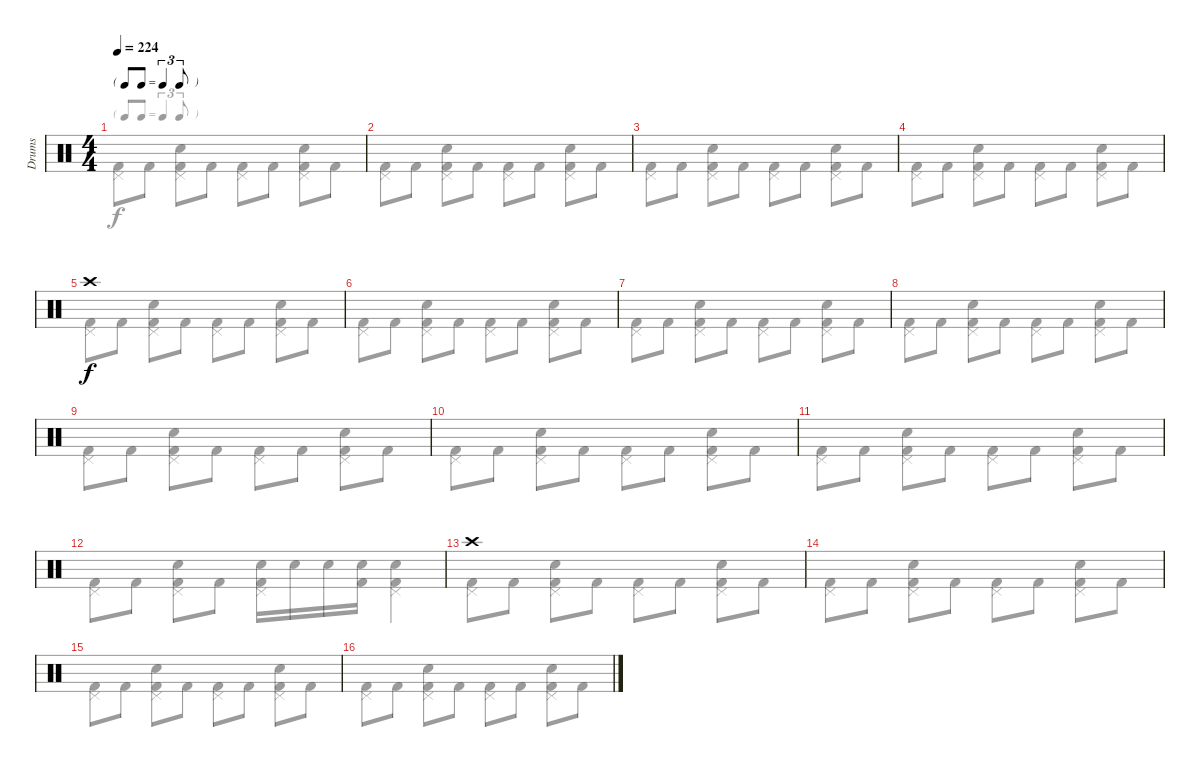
\track ("Drums" "Drums") {instrument percussion}
\staff {score}
\articulation defaults
\voice
\ts (4 4)
\tf triplet8th
\tempo 224
\clef neutral
\ks c
|
|
|
|
"Crash high (hit)".1 |
|
|
|
|
|
|
|
"Crash high (hit)".1 |
|
|
\voice
\clef neutral
\ottava regular
\simile none
\ks c
("Kick (hit) 2" "Pedal Hi-Hat (hit)").8{dy f} "Kick (hit) 2".8 ("Electric Snare (hit)" "Kick (hit) 2" "Pedal Hi-Hat (hit)").8 "Kick (hit) 2".8 ("Kick (hit) 2" "Pedal Hi-Hat (hit)").8 "Kick (hit) 2".8 ("Electric Snare (hit)" "Kick (hit) 2" "Pedal Hi-Hat (hit)").8 "Kick (hit) 2".8 |
("Kick (hit) 2" "Pedal Hi-Hat (hit)").8 "Kick (hit) 2".8 ("Electric Snare (hit)" "Kick (hit) 2" "Pedal Hi-Hat (hit)").8 "Kick (hit) 2".8 ("Kick (hit) 2" "Pedal Hi-Hat (hit)").8 "Kick (hit) 2".8 ("Electric Snare (hit)" "Kick (hit) 2" "Pedal Hi-Hat (hit)").8 "Kick (hit) 2".8 |
("Kick (hit) 2" "Pedal Hi-Hat (hit)").8 "Kick (hit) 2".8 ("Electric Snare (hit)" "Kick (hit) 2" "Pedal Hi-Hat (hit)").8 "Kick (hit) 2".8 ("Kick (hit) 2" "Pedal Hi-Hat (hit)").8 "Kick (hit) 2".8 ("Electric Snare (hit)" "Kick (hit) 2" "Pedal Hi-Hat (hit)").8 "Kick (hit) 2".8 |
("Kick (hit) 2" "Pedal Hi-Hat (hit)").8 "Kick (hit) 2".8 ("Electric Snare (hit)" "Kick (hit) 2" "Pedal Hi-Hat (hit)").8 "Kick (hit) 2".8 ("Kick (hit) 2" "Pedal Hi-Hat (hit)").8 "Kick (hit) 2".8 ("Electric Snare (hit)" "Kick (hit) 2" "Pedal Hi-Hat (hit)").8 "Kick (hit) 2".8 |
("Kick (hit) 2" "Pedal Hi-Hat (hit)").8 "Kick (hit) 2".8 ("Electric Snare (hit)" "Kick (hit) 2" "Pedal Hi-Hat (hit)").8 "Kick (hit) 2".8 ("Kick (hit) 2" "Pedal Hi-Hat (hit)").8 "Kick (hit) 2".8 ("Electric Snare (hit)" "Kick (hit) 2" "Pedal Hi-Hat (hit)").8 "Kick (hit) 2".8 |
("Kick (hit) 2" "Pedal Hi-Hat (hit)").8 "Kick (hit) 2".8 ("Electric Snare (hit)" "Kick (hit) 2" "Pedal Hi-Hat (hit)").8 "Kick (hit) 2".8 ("Kick (hit) 2" "Pedal Hi-Hat (hit)").8 "Kick (hit) 2".8 ("Electric Snare (hit)" "Kick (hit) 2" "Pedal Hi-Hat (hit)").8 "Kick (hit) 2".8 |
("Kick (hit) 2" "Pedal Hi-Hat (hit)").8 "Kick (hit) 2".8 ("Electric Snare (hit)" "Kick (hit) 2" "Pedal Hi-Hat (hit)").8 "Kick (hit) 2".8 ("Kick (hit) 2" "Pedal Hi-Hat (hit)").8 "Kick (hit) 2".8 ("Electric Snare (hit)" "Kick (hit) 2" "Pedal Hi-Hat (hit)").8 "Kick (hit) 2".8 |
("Kick (hit) 2" "Pedal Hi-Hat (hit)").8 "Kick (hit) 2".8 ("Electric Snare (hit)" "Kick (hit) 2" "Pedal Hi-Hat (hit)").8 "Kick (hit) 2".8 ("Kick (hit) 2" "Pedal Hi-Hat (hit)").8 "Kick (hit) 2".8 ("Electric Snare (hit)" "Kick (hit) 2" "Pedal Hi-Hat (hit)").8 "Kick (hit) 2".8 |
("Kick (hit) 2" "Pedal Hi-Hat (hit)").8 "Kick (hit) 2".8 ("Electric Snare (hit)" "Kick (hit) 2" "Pedal Hi-Hat (hit)").8 "Kick (hit) 2".8 ("Kick (hit) 2" "Pedal Hi-Hat (hit)").8 "Kick (hit) 2".8 ("Electric Snare (hit)" "Kick (hit) 2" "Pedal Hi-Hat (hit)").8 "Kick (hit) 2".8 |
("Kick (hit) 2" "Pedal Hi-Hat (hit)").8 "Kick (hit) 2".8 ("Electric Snare (hit)" "Kick (hit) 2" "Pedal Hi-Hat (hit)").8 "Kick (hit) 2".8 ("Kick (hit) 2" "Pedal Hi-Hat (hit)").8 "Kick (hit) 2".8 ("Electric Snare (hit)" "Kick (hit) 2" "Pedal Hi-Hat (hit)").8 "Kick (hit) 2".8 |
("Kick (hit) 2" "Pedal Hi-Hat (hit)").8 "Kick (hit) 2".8 ("Electric Snare (hit)" "Kick (hit) 2" "Pedal Hi-Hat (hit)").8 "Kick (hit) 2".8 ("Kick (hit) 2" "Pedal Hi-Hat (hit)").8 "Kick (hit) 2".8 ("Electric Snare (hit)" "Kick (hit) 2" "Pedal Hi-Hat (hit)").8 "Kick (hit) 2".8 |
("Kick (hit) 2" "Pedal Hi-Hat (hit)").8 "Kick (hit) 2".8 ("Electric Snare (hit)" "Kick (hit) 2" "Pedal Hi-Hat (hit)").8 "Kick (hit) 2".8 ("Electric Snare (hit)" "Kick (hit) 2" "Pedal Hi-Hat (hit)").16 "Electric Snare (hit)".16 "Electric Snare (hit)".16 ("Electric Snare (hit)" "Kick (hit) 2").16 ("Electric Snare (hit)" "Kick (hit) 2" "Pedal Hi-Hat (hit)").4 |
("Kick (hit) 2" "Pedal Hi-Hat (hit)").8 "Kick (hit) 2".8 ("Electric Snare (hit)" "Kick (hit) 2" "Pedal Hi-Hat (hit)").8 "Kick (hit) 2".8 ("Kick (hit) 2" "Pedal Hi-Hat (hit)").8 "Kick (hit) 2".8 ("Electric Snare (hit)" "Kick (hit) 2" "Pedal Hi-Hat (hit)").8 "Kick (hit) 2".8 |
("Kick (hit) 2" "Pedal Hi-Hat (hit)").8 "Kick (hit) 2".8 ("Electric Snare (hit)" "Kick (hit) 2" "Pedal Hi-Hat (hit)").8 "Kick (hit) 2".8 ("Kick (hit) 2" "Pedal Hi-Hat (hit)").8 "Kick (hit) 2".8 ("Electric Snare (hit)" "Kick (hit) 2" "Pedal Hi-Hat (hit)").8 "Kick (hit) 2".8 |
("Kick (hit) 2" "Pedal Hi-Hat (hit)").8 "Kick (hit) 2".8 ("Electric Snare (hit)" "Kick (hit) 2" "Pedal Hi-Hat (hit)").8 "Kick (hit) 2".8 ("Kick (hit) 2" "Pedal Hi-Hat (hit)").8 "Kick (hit) 2".8 ("Electric Snare (hit)" "Kick (hit) 2" "Pedal Hi-Hat (hit)").8 "Kick (hit) 2".8 |
("Kick (hit) 2" "Pedal Hi-Hat (hit)").8 "Kick (hit) 2".8 ("Electric Snare (hit)" "Kick (hit) 2" "Pedal Hi-Hat (hit)").8 "Kick (hit) 2".8 ("Kick (hit) 2" "Pedal Hi-Hat (hit)").8 "Kick (hit) 2".8 ("Electric Snare (hit)" "Kick (hit) 2" "Pedal Hi-Hat (hit)").8 "Kick (hit) 2".8
